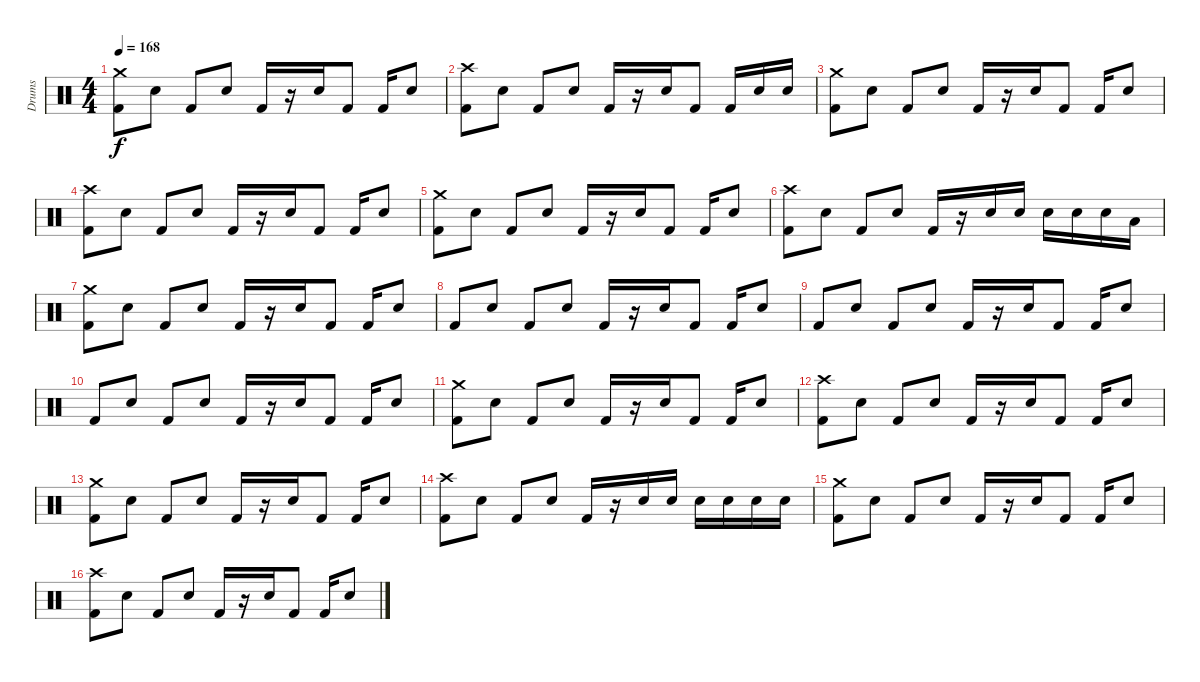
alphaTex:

\track ("Drums" "Drums") {instrument percussion}
\staff {score}
\articulation defaults
\ts (4 4)
\tempo 168
\clef neutral
\ks c
("Crash medium (hit)" "Kick (hit) 2").8{dy f} "Electric Snare (hit)".8 "Kick (hit) 2".8 "Electric Snare (hit)".8 "Kick (hit) 2".16 r.16 "Electric Snare (hit)".16 "Kick (hit) 2".8 "Kick (hit) 2".16 "Electric Snare (hit)".8 |
("Crash high (hit)" "Kick (hit) 2").8 "Electric Snare (hit)".8 "Kick (hit) 2".8 "Electric Snare (hit)".8 "Kick (hit) 2".16 r.16 "Electric Snare (hit)".16 "Kick (hit) 2".8 "Kick (hit) 2".16 "Electric Snare (hit)".16 "Electric Snare (hit)".16 |
("Crash medium (hit)" "Kick (hit) 2").8 "Electric Snare (hit)".8 "Kick (hit) 2".8 "Electric Snare (hit)".8 "Kick (hit) 2".16 r.16 "Electric Snare (hit)".16 "Kick (hit) 2".8 "Kick (hit) 2".16 "Electric Snare (hit)".8 |
("Crash high (hit)" "Kick (hit) 2").8 "Electric Snare (hit)".8 "Kick (hit) 2".8 "Electric Snare (hit)".8 "Kick (hit) 2".16 r.16 "Electric Snare (hit)".16 "Kick (hit) 2".8 "Kick (hit) 2".16 "Electric Snare (hit)".8 |
("Crash medium (hit)" "Kick (hit) 2").8 "Electric Snare (hit)".8 "Kick (hit) 2".8 "Electric Snare (hit)".8 "Kick (hit) 2".16 r.16 "Electric Snare (hit)".16 "Kick (hit) 2".8 "Kick (hit) 2".16 "Electric Snare (hit)".8 |
("Crash high (hit)" "Kick (hit) 2").8 "Electric Snare (hit)".8 "Kick (hit) 2".8 "Electric Snare (hit)".8 "Kick (hit) 2".16 r.16 "Electric Snare (hit)".16 "Electric Snare (hit)".16 "Electric Snare (hit)".16 "Electric Snare (hit)".16 "Electric Snare (hit)".16 "Low Tom (hit)".16 |
("Crash medium (hit)" "Kick (hit) 2").8 "Electric Snare (hit)".8 "Kick (hit) 2".8 "Electric Snare (hit)".8 "Kick (hit) 2".16 r.16 "Electric Snare (hit)".16 "Kick (hit) 2".8 "Kick (hit) 2".16 "Electric Snare (hit)".8 |
"Kick (hit) 2".8 "Electric Snare (hit)".8 "Kick (hit) 2".8 "Electric Snare (hit)".8 "Kick (hit) 2".16 r.16 "Electric Snare (hit)".16 "Kick (hit) 2".8 "Kick (hit) 2".16 "Electric Snare (hit)".8 |
"Kick (hit) 2".8 "Electric Snare (hit)".8 "Kick (hit) 2".8 "Electric Snare (hit)".8 "Kick (hit) 2".16 r.16 "Electric Snare (hit)".16 "Kick (hit) 2".8 "Kick (hit) 2".16 "Electric Snare (hit)".8 |
"Kick (hit) 2".8 "Electric Snare (hit)".8 "Kick (hit) 2".8 "Electric Snare (hit)".8 "Kick (hit) 2".16 r.16 "Electric Snare (hit)".16 "Kick (hit) 2".8 "Kick (hit) 2".16 "Electric Snare (hit)".8 |
("Crash medium (hit)" "Kick (hit) 2").8 "Electric Snare (hit)".8 "Kick (hit) 2".8 "Electric Snare (hit)".8 "Kick (hit) 2".16 r.16 "Electric Snare (hit)".16 "Kick (hit) 2".8 "Kick (hit) 2".16 "Electric Snare (hit)".8 |
("Crash high (hit)" "Kick (hit) 2").8 "Electric Snare (hit)".8 "Kick (hit) 2".8 "Electric Snare (hit)".8 "Kick (hit) 2".16 r.16 "Electric Snare (hit)".16 "Kick (hit) 2".8 "Kick (hit) 2".16 "Electric Snare (hit)".8 |
("Crash medium (hit)" "Kick (hit) 2").8 "Electric Snare (hit)".8 "Kick (hit) 2".8 "Electric Snare (hit)".8 "Kick (hit) 2".16 r.16 "Electric Snare (hit)".16 "Kick (hit) 2".8 "Kick (hit) 2".16 "Electric Snare (hit)".8 |
("Crash high (hit)" "Kick (hit) 2").8 "Electric Snare (hit)".8 "Kick (hit) 2".8 "Electric Snare (hit)".8 "Kick (hit) 2".16 r.16 "Electric Snare (hit)".16 "Electric Snare (hit)".16 "Electric Snare (hit)".16 "Electric Snare (hit)".16 "Electric Snare (hit)".16 "Electric Snare (hit)".16 |
("Crash medium (hit)" "Kick (hit) 2").8 "Electric Snare (hit)".8 "Kick (hit) 2".8 "Electric Snare (hit)".8 "Kick (hit) 2".16 r.16 "Electric Snare (hit)".16 "Kick (hit) 2".8 "Kick (hit) 2".16 "Electric Snare (hit)".8 |
("Crash high (hit)" "Kick (hit) 2").8 "Electric Snare (hit)".8 "Kick (hit) 2".8 "Electric Snare (hit)".8 "Kick (hit) 2".16 r.16 "Electric Snare (hit)".16 "Kick (hit) 2".8 "Kick (hit) 2".16 "Electric Snare (hit)".8
